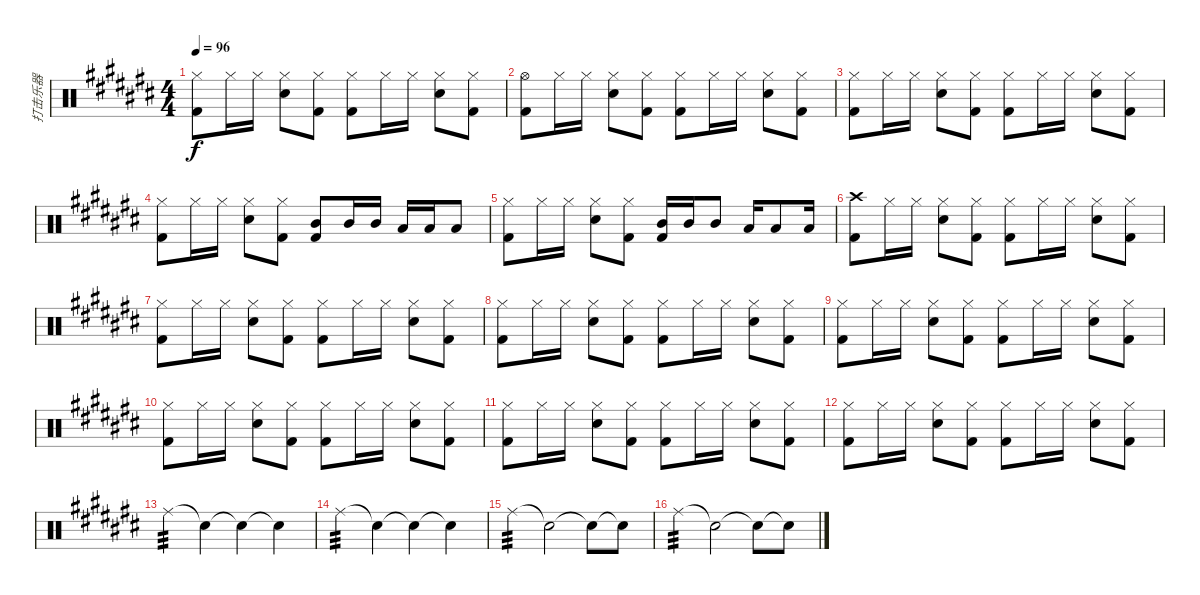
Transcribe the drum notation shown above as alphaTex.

\track ("打击乐器" "打击乐器") {instrument percussion}
\staff {score}
\articulation defaults
\ts (4 4)
\tempo 96
\clef neutral
\ks c#
("Hi-Hat (closed)" "Kick (hit) 2").8{dy f} "Hi-Hat (closed)".16 "Hi-Hat (closed)".16 ("Hi-Hat (closed)" "Snare (hit) 2").8 ("Hi-Hat (closed)" "Kick (hit) 2").8 ("Hi-Hat (closed)" "Kick (hit) 2").8 "Hi-Hat (closed)".16 "Hi-Hat (closed)".16 ("Hi-Hat (closed)" "Snare (hit) 2").8 ("Hi-Hat (closed)" "Kick (hit) 2").8 |
("Hi-Hat (open)" "Kick (hit) 2").8 "Hi-Hat (closed)".16 "Hi-Hat (closed)".16 ("Hi-Hat (closed)" "Snare (hit) 2").8 ("Hi-Hat (closed)" "Kick (hit) 2").8 ("Hi-Hat (closed)" "Kick (hit) 2").8 "Hi-Hat (closed)".16 "Hi-Hat (closed)".16 ("Hi-Hat (closed)" "Snare (hit) 2").8 ("Hi-Hat (closed)" "Kick (hit) 2").8 |
("Hi-Hat (closed)" "Kick (hit) 2").8 "Hi-Hat (closed)".16 "Hi-Hat (closed)".16 ("Hi-Hat (closed)" "Snare (hit) 2").8 ("Hi-Hat (closed)" "Kick (hit) 2").8 ("Hi-Hat (closed)" "Kick (hit) 2").8 "Hi-Hat (closed)".16 "Hi-Hat (closed)".16 ("Hi-Hat (closed)" "Snare (hit) 2").8 ("Hi-Hat (closed)" "Kick (hit) 2").8 |
("Hi-Hat (closed)" "Kick (hit) 2").8 "Hi-Hat (closed)".16 "Hi-Hat (closed)".16 ("Hi-Hat (closed)" "Snare (hit) 2").8 ("Hi-Hat (closed)" "Kick (hit) 2").8 ("Mid Tom (hit)" "Kick (hit) 2").8 "Mid Tom (hit)".16 "Mid Tom (hit)".16 "Low Tom (hit)".16 "Low Tom (hit)".16 "Low Floor Tom (hit)".8 |
("Hi-Hat (closed)" "Kick (hit) 2").8 "Hi-Hat (closed)".16 "Hi-Hat (closed)".16 ("Hi-Hat (closed)" "Snare (hit) 2").8 ("Hi-Hat (closed)" "Kick (hit) 2").8 ("Mid Tom (hit)" "Kick (hit) 2").16 "Mid Tom (hit)".16 "Mid Tom (hit)".8 "Low Tom (hit)".16 "Low Tom (hit)".8 "Low Tom (hit)".16 |
("Crash high (hit)" "Kick (hit) 2").8 "Hi-Hat (closed)".16 "Hi-Hat (closed)".16 ("Hi-Hat (closed)" "Snare (hit) 2").8 ("Hi-Hat (closed)" "Kick (hit) 2").8 ("Hi-Hat (closed)" "Kick (hit) 2").8 "Hi-Hat (closed)".16 "Hi-Hat (closed)".16 ("Hi-Hat (closed)" "Snare (hit) 2").8 ("Hi-Hat (closed)" "Kick (hit) 2").8 |
("Hi-Hat (closed)" "Kick (hit) 2").8 "Hi-Hat (closed)".16 "Hi-Hat (closed)".16 ("Hi-Hat (closed)" "Snare (hit) 2").8 ("Hi-Hat (closed)" "Kick (hit) 2").8 ("Hi-Hat (closed)" "Kick (hit) 2").8 "Hi-Hat (closed)".16 "Hi-Hat (closed)".16 ("Hi-Hat (closed)" "Snare (hit) 2").8 ("Hi-Hat (closed)" "Kick (hit) 2").8 |
("Hi-Hat (closed)" "Kick (hit) 2").8 "Hi-Hat (closed)".16 "Hi-Hat (closed)".16 ("Hi-Hat (closed)" "Snare (hit) 2").8 ("Hi-Hat (closed)" "Kick (hit) 2").8 ("Hi-Hat (closed)" "Kick (hit) 2").8 "Hi-Hat (closed)".16 "Hi-Hat (closed)".16 ("Hi-Hat (closed)" "Snare (hit) 2").8 ("Hi-Hat (closed)" "Kick (hit) 2").8 |
("Hi-Hat (closed)" "Kick (hit) 2").8 "Hi-Hat (closed)".16 "Hi-Hat (closed)".16 ("Hi-Hat (closed)" "Snare (hit) 2").8 ("Hi-Hat (closed)" "Kick (hit) 2").8 ("Hi-Hat (closed)" "Kick (hit) 2").8 "Hi-Hat (closed)".16 "Hi-Hat (closed)".16 ("Hi-Hat (closed)" "Snare (hit) 2").8 ("Hi-Hat (closed)" "Kick (hit) 2").8 |
("Hi-Hat (closed)" "Kick (hit) 2").8 "Hi-Hat (closed)".16 "Hi-Hat (closed)".16 ("Hi-Hat (closed)" "Snare (hit) 2").8 ("Hi-Hat (closed)" "Kick (hit) 2").8 ("Hi-Hat (closed)" "Kick (hit) 2").8 "Hi-Hat (closed)".16 "Hi-Hat (closed)".16 ("Hi-Hat (closed)" "Snare (hit) 2").8 ("Hi-Hat (closed)" "Kick (hit) 2").8 |
("Hi-Hat (closed)" "Kick (hit) 2").8 "Hi-Hat (closed)".16 "Hi-Hat (closed)".16 ("Hi-Hat (closed)" "Snare (hit) 2").8 ("Hi-Hat (closed)" "Kick (hit) 2").8 ("Hi-Hat (closed)" "Kick (hit) 2").8 "Hi-Hat (closed)".16 "Hi-Hat (closed)".16 ("Hi-Hat (closed)" "Snare (hit) 2").8 ("Hi-Hat (closed)" "Kick (hit) 2").8 |
("Hi-Hat (closed)" "Kick (hit) 2").8 "Hi-Hat (closed)".16 "Hi-Hat (closed)".16 ("Hi-Hat (closed)" "Snare (hit) 2").8 ("Hi-Hat (closed)" "Kick (hit) 2").8 ("Hi-Hat (closed)" "Kick (hit) 2").8 "Hi-Hat (closed)".16 "Hi-Hat (closed)".16 ("Hi-Hat (closed)" "Snare (hit) 2").8 ("Hi-Hat (closed)" "Kick (hit) 2").8 |
"Ride (middle)".4{tp 3} "Snare (hit)"{t}.4 "Snare (hit)"{t}.4 "Snare (hit)"{t}.4 |
"Ride (middle)".4{tp 3} "Snare (hit)"{t}.4 "Snare (hit)"{t}.4 "Snare (hit)"{t}.4 |
"Ride (middle)".4{tp 3} "Snare (hit)"{t}.2 "Snare (hit)"{t}.8 "Snare (hit)"{t}.8 |
"Ride (middle)".4{tp 3} "Snare (hit)"{t}.2 "Snare (hit)"{t}.8 "Snare (hit)"{t}.8
